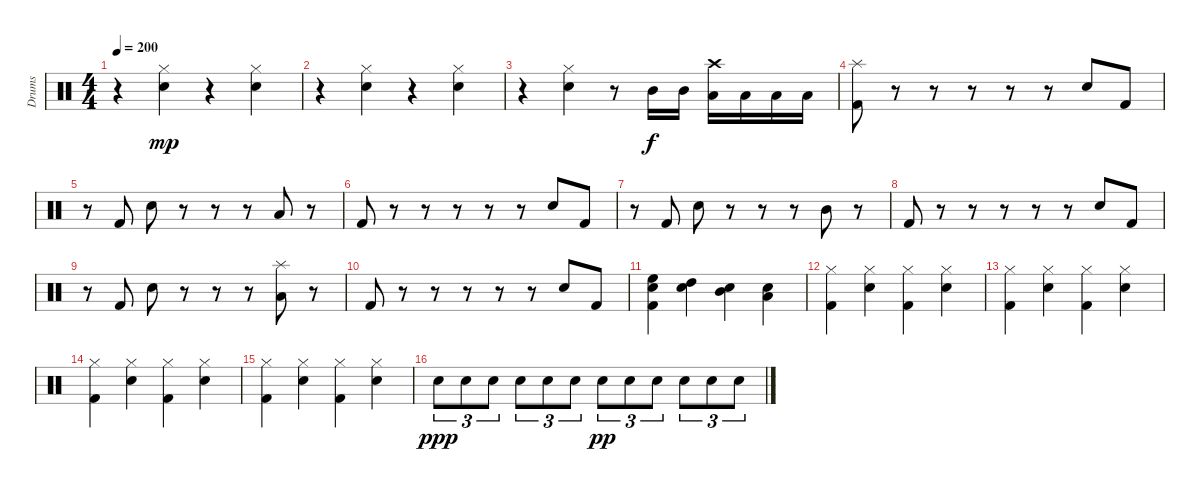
\track ("Drums" "Drums") {instrument percussion}
\staff {score}
\articulation defaults
\ts (4 4)
\tempo 200
\clef neutral
\ks c
r.4{dy mp} ("Hi-Hat (closed)" "Snare (hit) 2").4 r.4 ("Hi-Hat (closed)" "Snare (hit) 2").4 |
r.4 ("Hi-Hat (closed)" "Snare (hit) 2").4 r.4 ("Hi-Hat (closed)" "Snare (hit) 2").4 |
r.4 ("Hi-Hat (closed)" "Snare (hit) 2").4 r.8 "Mid Tom (hit)".16{dy f} "Mid Tom (hit)".16 ("Crash high (hit)" "Low Tom (hit)").16 "Low Tom (hit)".16 "Low Tom (hit)".16 "Low Tom (hit)".16 |
("Splash (hit)" "Kick (hit) 2").8 r.8 r.8 r.8 r.8 r.8 "Snare (hit) 2".8 "Kick (hit) 2".8 |
r.8 "Kick (hit) 2".8 "Snare (hit) 2".8 r.8 r.8 r.8 "Low Tom (hit)".8 r.8 |
"Kick (hit) 2".8 r.8 r.8 r.8 r.8 r.8 "Snare (hit) 2".8 "Kick (hit) 2".8 |
r.8 "Kick (hit) 2".8 "Snare (hit) 2".8 r.8 r.8 r.8 "Mid Tom (hit)".8 r.8 |
"Kick (hit) 2".8 r.8 r.8 r.8 r.8 r.8 "Snare (hit) 2".8 "Kick (hit) 2".8 |
r.8 "Kick (hit) 2".8 "Snare (hit) 2".8 r.8 r.8 r.8 ("Splash (hit)" "Low Tom (hit)").8 r.8 |
"Kick (hit) 2".8 r.8 r.8 r.8 r.8 r.8 "Snare (hit) 2".8 "Kick (hit) 2".8 |
("High Floor Tom (hit)" "Snare (hit) 2" "Kick (hit) 2").4 ("High Tom (hit)" "Snare (hit) 2").4 ("Mid Tom (hit)" "Snare (hit) 2").4 ("Low Tom (hit)" "Snare (hit) 2").4 |
("Hi-Hat (closed)" "Kick (hit) 2").4 ("Hi-Hat (closed)" "Snare (hit) 2").4 ("Hi-Hat (closed)" "Kick (hit) 2").4 ("Hi-Hat (closed)" "Snare (hit) 2").4 |
("Hi-Hat (closed)" "Kick (hit) 2").4 ("Hi-Hat (closed)" "Snare (hit) 2").4 ("Hi-Hat (closed)" "Kick (hit) 2").4 ("Hi-Hat (closed)" "Snare (hit) 2").4 |
("Hi-Hat (closed)" "Kick (hit) 2").4 ("Hi-Hat (closed)" "Snare (hit) 2").4 ("Hi-Hat (closed)" "Kick (hit) 2").4 ("Hi-Hat (closed)" "Snare (hit) 2").4 |
("Hi-Hat (closed)" "Kick (hit) 2").4 ("Hi-Hat (closed)" "Snare (hit) 2").4 ("Hi-Hat (closed)" "Kick (hit) 2").4 ("Hi-Hat (closed)" "Snare (hit) 2").4 |
"Snare (hit) 2".8{tu (3 2) dy ppp} "Snare (hit) 2".8{tu (3 2)} "Snare (hit) 2".8{tu (3 2)} "Snare (hit) 2".8{tu (3 2)} "Snare (hit) 2".8{tu (3 2)} "Snare (hit) 2".8{tu (3 2)} "Snare (hit) 2".8{tu (3 2) dy pp} "Snare (hit) 2".8{tu (3 2)} "Snare (hit) 2".8{tu (3 2)} "Snare (hit) 2".8{tu (3 2)} "Snare (hit) 2".8{tu (3 2)} "Snare (hit) 2".8{tu (3 2)}
